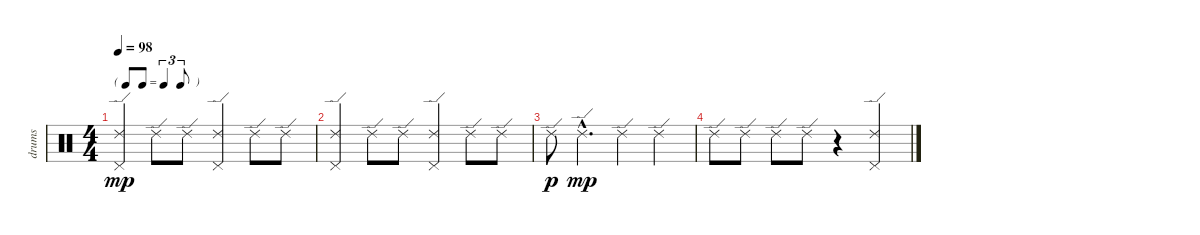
\track ("drums" "drums") {instrument percussion}
\staff {score}
\articulation defaults
\ts (4 4)
\tf triplet8th
\tempo 98
\clef neutral
\ks c
("Pedal Hi-Hat (hit)" "Ride (edge) 2").4{dy mp} "Ride (edge) 2".8 "Ride (edge) 2".8 ("Pedal Hi-Hat (hit)" "Ride (edge) 2").4 "Ride (edge) 2".8 "Ride (edge) 2".8 |
("Pedal Hi-Hat (hit)" "Ride (edge) 2").4 "Ride (edge) 2".8 "Ride (edge) 2".8 ("Pedal Hi-Hat (hit)" "Ride (edge) 2").4 "Ride (edge) 2".8 "Ride (edge) 2".8 |
"Ride (edge) 2".8{dy p} "Ride (edge) 2"{hac}.4{d dy mp} "Ride (edge) 2".4 "Ride (edge) 2".4 |
"Ride (edge) 2".8 "Ride (edge) 2".8 "Ride (edge) 2".8 "Ride (edge) 2".8 r.4 ("Pedal Hi-Hat (hit)" "Ride (edge) 2").4
